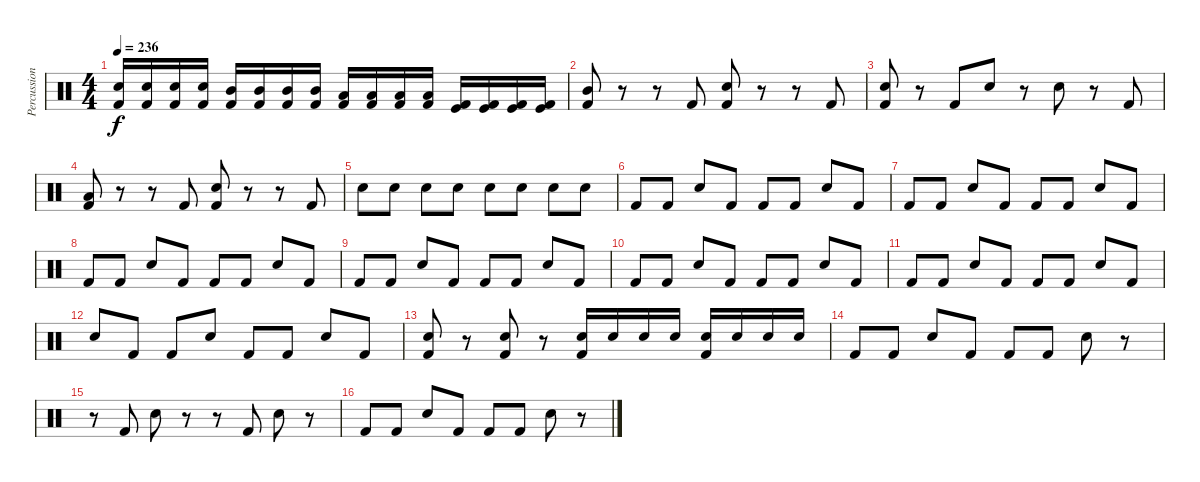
\track ("Percussions" "Percussion") {instrument percussion}
\staff {score}
\articulation defaults
\ts (4 4)
\tempo 236
\clef neutral
\ks c
("Snare (hit) 2" "Kick (hit) 2").16{dy f} ("Snare (hit) 2" "Kick (hit) 2").16 ("Snare (hit) 2" "Kick (hit) 2").16 ("Snare (hit) 2" "Kick (hit) 2").16 ("Mid Tom (hit)" "Kick (hit) 2").16 ("Mid Tom (hit)" "Kick (hit) 2").16 ("Mid Tom (hit)" "Kick (hit) 2").16 ("Mid Tom (hit)" "Kick (hit) 2").16 ("Low Tom (hit)" "Kick (hit) 2").16 ("Low Tom (hit)" "Kick (hit) 2").16 ("Low Tom (hit)" "Kick (hit) 2").16 ("Low Tom (hit)" "Kick (hit) 2").16 ("Kick (hit)" "Kick (hit) 2").16 ("Kick (hit)" "Kick (hit) 2").16 ("Kick (hit)" "Kick (hit) 2").16 ("Kick (hit)" "Kick (hit) 2").16 |
("Mid Tom (hit)" "Kick (hit) 2").8 r.8 r.8 "Kick (hit) 2".8 ("Snare (hit) 2" "Kick (hit) 2").8 r.8 r.8 "Kick (hit) 2".8 |
("Snare (hit) 2" "Kick (hit) 2").8 r.8 "Kick (hit) 2".8 "Snare (hit) 2".8 r.8 "Snare (hit) 2".8 r.8 "Kick (hit) 2".8 |
("Low Tom (hit)" "Kick (hit) 2").8 r.8 r.8 "Kick (hit) 2".8 ("Snare (hit) 2" "Kick (hit) 2").8 r.8 r.8 "Kick (hit) 2".8 |
"Snare (hit) 2".8 "Snare (hit) 2".8 "Snare (hit) 2".8 "Snare (hit) 2".8 "Snare (hit) 2".8 "Snare (hit) 2".8 "Snare (hit) 2".8 "Snare (hit) 2".8 |
"Kick (hit) 2".8 "Kick (hit) 2".8 "Snare (hit) 2".8 "Kick (hit) 2".8 "Kick (hit) 2".8 "Kick (hit) 2".8 "Snare (hit) 2".8 "Kick (hit) 2".8 |
"Kick (hit) 2".8 "Kick (hit) 2".8 "Snare (hit) 2".8 "Kick (hit) 2".8 "Kick (hit) 2".8 "Kick (hit) 2".8 "Snare (hit) 2".8 "Kick (hit) 2".8 |
"Kick (hit) 2".8 "Kick (hit) 2".8 "Snare (hit) 2".8 "Kick (hit) 2".8 "Kick (hit) 2".8 "Kick (hit) 2".8 "Snare (hit) 2".8 "Kick (hit) 2".8 |
"Kick (hit) 2".8 "Kick (hit) 2".8 "Snare (hit) 2".8 "Kick (hit) 2".8 "Kick (hit) 2".8 "Kick (hit) 2".8 "Snare (hit) 2".8 "Kick (hit) 2".8 |
"Kick (hit) 2".8 "Kick (hit) 2".8 "Snare (hit) 2".8 "Kick (hit) 2".8 "Kick (hit) 2".8 "Kick (hit) 2".8 "Snare (hit) 2".8 "Kick (hit) 2".8 |
"Kick (hit) 2".8 "Kick (hit) 2".8 "Snare (hit) 2".8 "Kick (hit) 2".8 "Kick (hit) 2".8 "Kick (hit) 2".8 "Snare (hit) 2".8 "Kick (hit) 2".8 |
"Snare (hit) 2".8 "Kick (hit) 2".8 "Kick (hit) 2".8 "Snare (hit) 2".8 "Kick (hit) 2".8 "Kick (hit) 2".8 "Snare (hit) 2".8 "Kick (hit) 2".8 |
("Snare (hit) 2" "Kick (hit) 2").8 r.8 ("Snare (hit) 2" "Kick (hit) 2").8 r.8 ("Snare (hit) 2" "Kick (hit) 2").16 "Snare (hit) 2".16 "Snare (hit) 2".16 "Snare (hit) 2".16 ("Snare (hit) 2" "Kick (hit) 2").16 "Snare (hit) 2".16 "Snare (hit) 2".16 "Snare (hit) 2".16 |
"Kick (hit) 2".8 "Kick (hit) 2".8 "Snare (hit) 2".8 "Kick (hit) 2".8 "Kick (hit) 2".8 "Kick (hit) 2".8 "Snare (hit) 2".8 r.8 |
r.8 "Kick (hit) 2".8 "Snare (hit) 2".8 r.8 r.8 "Kick (hit) 2".8 "Snare (hit) 2".8 r.8 |
"Kick (hit) 2".8 "Kick (hit) 2".8 "Snare (hit) 2".8 "Kick (hit) 2".8 "Kick (hit) 2".8 "Kick (hit) 2".8 "Snare (hit) 2".8 r.8
